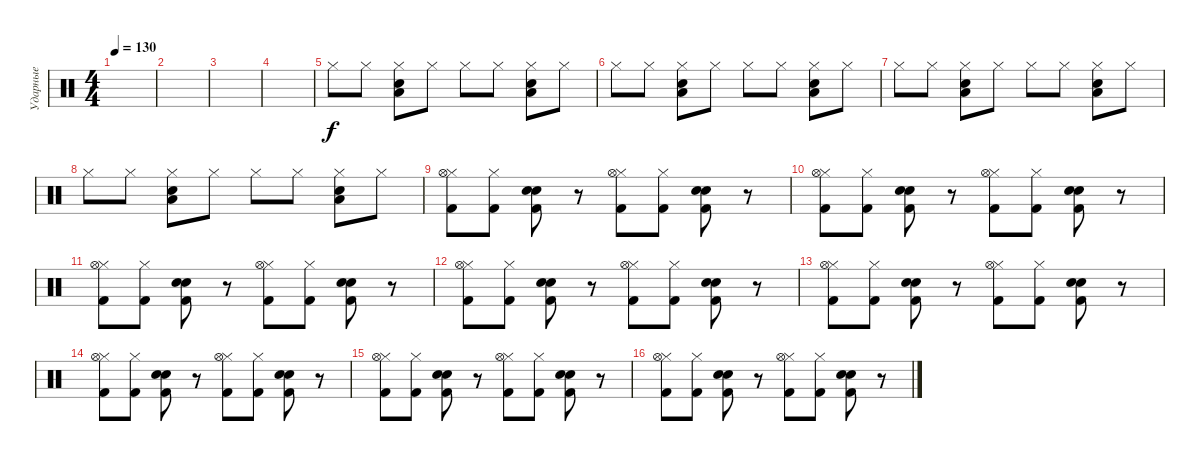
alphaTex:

\track ("Ударные" "Ударные") {instrument percussion}
\staff {score}
\articulation defaults
\ts (4 4)
\tempo 130
\clef neutral
\ks c
|
|
|
|
"Hi-Hat (closed)".8 "Hi-Hat (closed)".8 ("Hi-Hat (closed)" "Low Floor Tom (hit)" "Snare (hit) 2").8 "Hi-Hat (closed)".8 "Hi-Hat (closed)".8 "Hi-Hat (closed)".8 ("Hi-Hat (closed)" "Low Floor Tom (hit)" "Snare (hit) 2").8 "Hi-Hat (closed)".8 |
"Hi-Hat (closed)".8 "Hi-Hat (closed)".8 ("Hi-Hat (closed)" "Low Floor Tom (hit)" "Snare (hit) 2").8 "Hi-Hat (closed)".8 "Hi-Hat (closed)".8 "Hi-Hat (closed)".8 ("Hi-Hat (closed)" "Low Floor Tom (hit)" "Snare (hit) 2").8 "Hi-Hat (closed)".8 |
"Hi-Hat (closed)".8 "Hi-Hat (closed)".8 ("Hi-Hat (closed)" "Low Floor Tom (hit)" "Snare (hit) 2").8 "Hi-Hat (closed)".8 "Hi-Hat (closed)".8 "Hi-Hat (closed)".8 ("Hi-Hat (closed)" "Low Floor Tom (hit)" "Snare (hit) 2").8 "Hi-Hat (closed)".8 |
"Hi-Hat (closed)".8 "Hi-Hat (closed)".8 ("Hi-Hat (closed)" "Low Floor Tom (hit)" "Snare (hit) 2").8 "Hi-Hat (closed)".8 "Hi-Hat (closed)".8 "Hi-Hat (closed)".8 ("Hi-Hat (closed)" "Low Floor Tom (hit)" "Snare (hit) 2").8 "Hi-Hat (closed)".8 |
("Hi-Hat (closed)" "Kick (hit) 2" "Hi-Hat (open)").8 ("Hi-Hat (closed)" "Kick (hit) 2").8 ("Snare (hit) 2" "Kick (hit) 2" "Electric Snare (hit)").8 r.8 ("Hi-Hat (closed)" "Kick (hit) 2" "Hi-Hat (open)").8 ("Hi-Hat (closed)" "Kick (hit) 2").8 ("Snare (hit) 2" "Kick (hit) 2" "Electric Snare (hit)").8 r.8 |
("Hi-Hat (closed)" "Kick (hit) 2" "Hi-Hat (open)").8 ("Hi-Hat (closed)" "Kick (hit) 2").8 ("Snare (hit) 2" "Kick (hit) 2" "Electric Snare (hit)").8 r.8 ("Hi-Hat (closed)" "Kick (hit) 2" "Hi-Hat (open)").8 ("Hi-Hat (closed)" "Kick (hit) 2").8 ("Snare (hit) 2" "Kick (hit) 2" "Electric Snare (hit)").8 r.8 |
("Hi-Hat (closed)" "Kick (hit) 2" "Hi-Hat (open)").8 ("Hi-Hat (closed)" "Kick (hit) 2").8 ("Snare (hit) 2" "Kick (hit) 2" "Electric Snare (hit)").8 r.8 ("Hi-Hat (closed)" "Kick (hit) 2" "Hi-Hat (open)").8 ("Hi-Hat (closed)" "Kick (hit) 2").8 ("Snare (hit) 2" "Kick (hit) 2" "Electric Snare (hit)").8 r.8 |
("Hi-Hat (closed)" "Kick (hit) 2" "Hi-Hat (open)").8 ("Hi-Hat (closed)" "Kick (hit) 2").8 ("Snare (hit) 2" "Kick (hit) 2" "Electric Snare (hit)").8 r.8 ("Hi-Hat (closed)" "Kick (hit) 2" "Hi-Hat (open)").8 ("Hi-Hat (closed)" "Kick (hit) 2").8 ("Snare (hit) 2" "Kick (hit) 2" "Electric Snare (hit)").8 r.8 |
("Hi-Hat (closed)" "Kick (hit) 2" "Hi-Hat (open)").8 ("Hi-Hat (closed)" "Kick (hit) 2").8 ("Snare (hit) 2" "Kick (hit) 2" "Electric Snare (hit)").8 r.8 ("Hi-Hat (closed)" "Kick (hit) 2" "Hi-Hat (open)").8 ("Hi-Hat (closed)" "Kick (hit) 2").8 ("Snare (hit) 2" "Kick (hit) 2" "Electric Snare (hit)").8 r.8 |
("Hi-Hat (closed)" "Kick (hit) 2" "Hi-Hat (open)").8 ("Hi-Hat (closed)" "Kick (hit) 2").8 ("Snare (hit) 2" "Kick (hit) 2" "Electric Snare (hit)").8 r.8 ("Hi-Hat (closed)" "Kick (hit) 2" "Hi-Hat (open)").8 ("Hi-Hat (closed)" "Kick (hit) 2").8 ("Snare (hit) 2" "Kick (hit) 2" "Electric Snare (hit)").8 r.8 |
("Hi-Hat (closed)" "Kick (hit) 2" "Hi-Hat (open)").8 ("Hi-Hat (closed)" "Kick (hit) 2").8 ("Snare (hit) 2" "Kick (hit) 2" "Electric Snare (hit)").8 r.8 ("Hi-Hat (closed)" "Kick (hit) 2" "Hi-Hat (open)").8 ("Hi-Hat (closed)" "Kick (hit) 2").8 ("Snare (hit) 2" "Kick (hit) 2" "Electric Snare (hit)").8 r.8 |
("Hi-Hat (closed)" "Kick (hit) 2" "Hi-Hat (open)").8 ("Hi-Hat (closed)" "Kick (hit) 2").8 ("Snare (hit) 2" "Kick (hit) 2" "Electric Snare (hit)").8 r.8 ("Hi-Hat (closed)" "Kick (hit) 2" "Hi-Hat (open)").8 ("Hi-Hat (closed)" "Kick (hit) 2").8 ("Snare (hit) 2" "Kick (hit) 2" "Electric Snare (hit)").8 r.8
